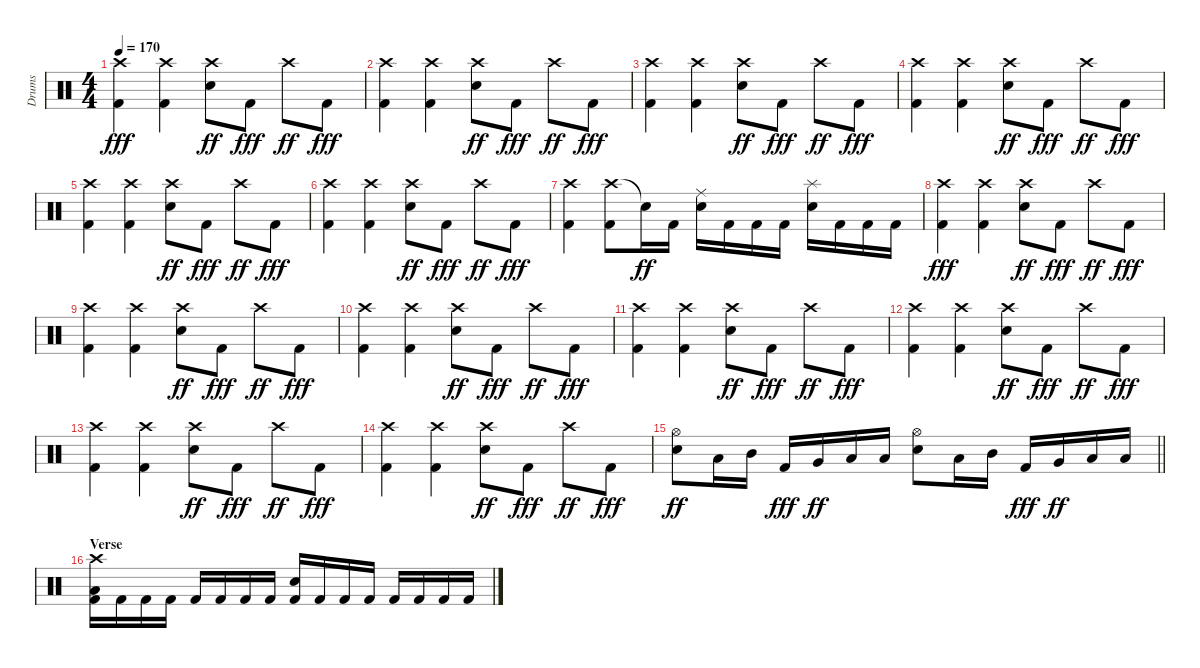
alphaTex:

\track ("Drums" "Drums") {instrument percussion}
\staff {score}
\articulation defaults
\ts (4 4)
\tempo 170
\clef neutral
\ks c
("Crash high (hit)" "Kick (hit) 2").4{dy fff} ("Crash high (hit)" "Kick (hit) 2").4 ("Crash high (hit)" "Snare (hit) 2").8{dy ff} "Kick (hit) 2".8{dy fff} "Crash high (hit)".8{dy ff} "Kick (hit) 2".8{dy fff} |
("Crash high (hit)" "Kick (hit) 2").4 ("Crash high (hit)" "Kick (hit) 2").4 ("Crash high (hit)" "Snare (hit) 2").8{dy ff} "Kick (hit) 2".8{dy fff} "Crash high (hit)".8{dy ff} "Kick (hit) 2".8{dy fff} |
("Crash high (hit)" "Kick (hit) 2").4 ("Crash high (hit)" "Kick (hit) 2").4 ("Crash high (hit)" "Snare (hit) 2").8{dy ff} "Kick (hit) 2".8{dy fff} "Crash high (hit)".8{dy ff} "Kick (hit) 2".8{dy fff} |
("Crash high (hit)" "Kick (hit) 2").4 ("Crash high (hit)" "Kick (hit) 2").4 ("Crash high (hit)" "Snare (hit) 2").8{dy ff} "Kick (hit) 2".8{dy fff} "Crash high (hit)".8{dy ff} "Kick (hit) 2".8{dy fff} |
("Crash high (hit)" "Kick (hit) 2").4 ("Crash high (hit)" "Kick (hit) 2").4 ("Crash high (hit)" "Snare (hit) 2").8{dy ff} "Kick (hit) 2".8{dy fff} "Crash high (hit)".8{dy ff} "Kick (hit) 2".8{dy fff} |
("Crash high (hit)" "Kick (hit) 2").4 ("Crash high (hit)" "Kick (hit) 2").4 ("Crash high (hit)" "Snare (hit) 2").8{dy ff} "Kick (hit) 2".8{dy fff} "Crash high (hit)".8{dy ff} "Kick (hit) 2".8{dy fff} |
("Crash high (hit)" "Kick (hit) 2").4 ("Crash high (hit)" "Kick (hit) 2").8 "Snare (hit)"{t}.16{dy ff} "Kick (hit) 2".16 ("Ride (middle)" "Snare (hit) 2").16 "Kick (hit) 2".16 "Kick (hit) 2".16 "Kick (hit) 2".16 ("Splash (hit)" "Snare (hit) 2").16 "Kick (hit) 2".16 "Kick (hit) 2".16 "Kick (hit) 2".16 |
("Crash high (hit)" "Kick (hit) 2").4{dy fff} ("Crash high (hit)" "Kick (hit) 2").4 ("Crash high (hit)" "Snare (hit) 2").8{dy ff} "Kick (hit) 2".8{dy fff} "Crash high (hit)".8{dy ff} "Kick (hit) 2".8{dy fff} |
("Crash high (hit)" "Kick (hit) 2").4 ("Crash high (hit)" "Kick (hit) 2").4 ("Crash high (hit)" "Snare (hit) 2").8{dy ff} "Kick (hit) 2".8{dy fff} "Crash high (hit)".8{dy ff} "Kick (hit) 2".8{dy fff} |
("Crash high (hit)" "Kick (hit) 2").4 ("Crash high (hit)" "Kick (hit) 2").4 ("Crash high (hit)" "Snare (hit) 2").8{dy ff} "Kick (hit) 2".8{dy fff} "Crash high (hit)".8{dy ff} "Kick (hit) 2".8{dy fff} |
("Crash high (hit)" "Kick (hit) 2").4 ("Crash high (hit)" "Kick (hit) 2").4 ("Crash high (hit)" "Snare (hit) 2").8{dy ff} "Kick (hit) 2".8{dy fff} "Crash high (hit)".8{dy ff} "Kick (hit) 2".8{dy fff} |
("Crash high (hit)" "Kick (hit) 2").4 ("Crash high (hit)" "Kick (hit) 2").4 ("Crash high (hit)" "Snare (hit) 2").8{dy ff} "Kick (hit) 2".8{dy fff} "Crash high (hit)".8{dy ff} "Kick (hit) 2".8{dy fff} |
("Crash high (hit)" "Kick (hit) 2").4 ("Crash high (hit)" "Kick (hit) 2").4 ("Crash high (hit)" "Snare (hit) 2").8{dy ff} "Kick (hit) 2".8{dy fff} "Crash high (hit)".8{dy ff} "Kick (hit) 2".8{dy fff} |
("Crash high (hit)" "Kick (hit) 2").4 ("Crash high (hit)" "Kick (hit) 2").4 ("Crash high (hit)" "Snare (hit) 2").8{dy ff} "Kick (hit) 2".8{dy fff} "Crash high (hit)".8{dy ff} "Kick (hit) 2".8{dy fff} |
\barLineRight lightlight
("Hi-Hat (open)" "Snare (hit) 2").8{dy ff} "Low Tom (hit)".16 "Mid Tom (hit)".16 "Kick (hit) 2".16{dy fff} "Very Low Tom (hit)".16{dy ff} "Low Floor Tom (hit)".16 "Low Tom (hit)".16 ("Hi-Hat (open)" "Snare (hit) 2").8 "Low Tom (hit)".16 "Mid Tom (hit)".16 "Kick (hit) 2".16{dy fff} "Very Low Tom (hit)".16{dy ff} "Low Floor Tom (hit)".16 "Low Tom (hit)".16 |
\section ("" "Verse")
("Crash high (hit)" "Low Tom (hit)" "Kick (hit) 2").16 "Kick (hit) 2".16 "Kick (hit) 2".16 "Kick (hit) 2".16 "Kick (hit) 2".16 "Kick (hit) 2".16 "Kick (hit) 2".16 "Kick (hit) 2".16 ("Snare (hit) 2" "Kick (hit) 2").16 "Kick (hit) 2".16 "Kick (hit) 2".16 "Kick (hit) 2".16 "Kick (hit) 2".16 "Kick (hit) 2".16 "Kick (hit) 2".16 "Kick (hit) 2".16
